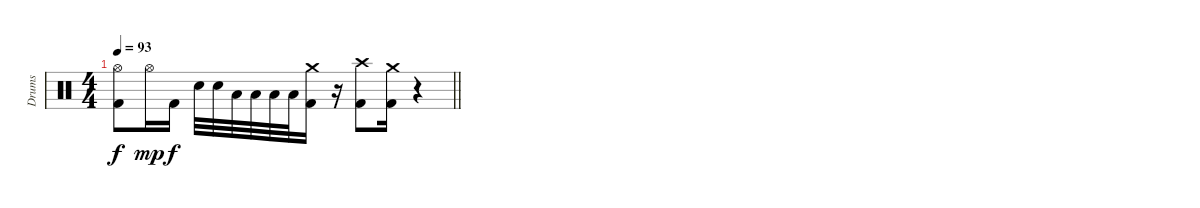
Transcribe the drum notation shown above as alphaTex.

\track ("Drums" "Drums") {instrument percussion}
\staff {score}
\articulation defaults
\ts (4 4)
\tempo 93
\clef neutral
\barLineRight lightlight
\ks c
("Hi-Hat (open)" "Kick (hit) 2").8{dy f} "Hi-Hat (open)".16{dy mp} "Kick (hit) 2".16{dy f} "Electric Snare (hit)".32 "Electric Snare (hit)".32 "Low Tom (hit)".32 "Low Tom (hit)".32 "Low Floor Tom (hit)".32 "Low Floor Tom (hit)".32 ("Crash medium (hit)" "Kick (hit) 2").16 r.16 ("Crash high (hit)" "Kick (hit) 2").8 ("Crash medium (hit)" "Kick (hit) 2").16 r.4
